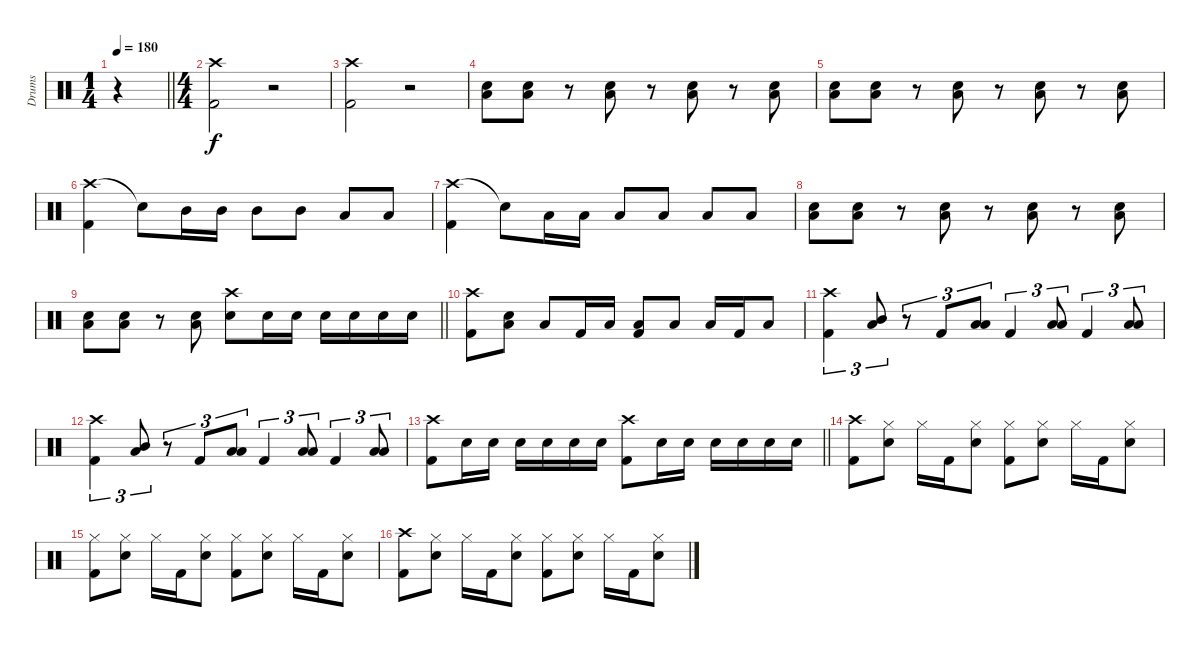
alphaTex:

\track ("Drums" "Drums") {instrument percussion}
\staff {score}
\articulation defaults
\ts (1 4)
\tempo 180
\clef neutral
\barLineRight lightlight
\ks c
r.4{dy f} |
\ts (4 4)
("Crash high (hit)" "Kick (hit) 2").2 r.2 |
("Crash high (hit)" "Kick (hit) 2").2 r.2 |
("Snare (hit) 2" "Low Floor Tom (hit)").8 ("Snare (hit) 2" "Low Floor Tom (hit)").8 r.8 ("Snare (hit) 2" "Low Floor Tom (hit)").8 r.8 ("Snare (hit) 2" "Low Floor Tom (hit)").8 r.8 ("Snare (hit) 2" "Low Floor Tom (hit)").8 |
("Snare (hit) 2" "Low Floor Tom (hit)").8 ("Snare (hit) 2" "Low Floor Tom (hit)").8 r.8 ("Snare (hit) 2" "Low Floor Tom (hit)").8 r.8 ("Snare (hit) 2" "Low Floor Tom (hit)").8 r.8 ("Snare (hit) 2" "Low Floor Tom (hit)").8 |
("Crash high (hit)" "Kick (hit) 2").4 "Snare (hit)"{t}.8 "Mid Tom (hit)".16 "Mid Tom (hit)".16 "Mid Tom (hit)".8 "Mid Tom (hit)".8 "Low Tom (hit)".8 "Low Tom (hit)".8 |
("Crash high (hit)" "Kick (hit) 2").4 "Snare (hit)"{t}.8 "Low Tom (hit)".16 "Low Tom (hit)".16 "Low Tom (hit)".8 "Low Tom (hit)".8 "Low Tom (hit)".8 "Low Tom (hit)".8 |
("Snare (hit) 2" "Low Floor Tom (hit)").8 ("Snare (hit) 2" "Low Floor Tom (hit)").8 r.8 ("Snare (hit) 2" "Low Floor Tom (hit)").8 r.8 ("Snare (hit) 2" "Low Floor Tom (hit)").8 r.8 ("Snare (hit) 2" "Low Floor Tom (hit)").8 |
\barLineRight lightlight
("Snare (hit) 2" "Low Floor Tom (hit)").8 ("Snare (hit) 2" "Low Floor Tom (hit)").8 r.8 ("Snare (hit) 2" "Low Floor Tom (hit)").8 ("Crash high (hit)" "Snare (hit) 2").8 "Snare (hit) 2".16 "Snare (hit) 2".16 "Snare (hit) 2".16 "Snare (hit) 2".16 "Snare (hit) 2".16 "Snare (hit) 2".16 |
("Crash high (hit)" "Kick (hit) 2").8 ("Snare (hit) 2" "Low Floor Tom (hit)").8 "Low Floor Tom (hit)".8 "Kick (hit) 2".16 "Low Floor Tom (hit)".16 ("Low Floor Tom (hit)" "Kick (hit) 2").8 "Low Floor Tom (hit)".8 "Low Floor Tom (hit)".16 "Kick (hit) 2".16 "Low Tom (hit)".8 |
("Crash high (hit)" "Kick (hit) 2").4{tu (3 2)} ("Mid Tom (hit)" "Low Floor Tom (hit)").8{tu (3 2)} r.8{tu (3 2)} "Kick (hit) 2".8{tu (3 2)} ("Low Tom (hit)" "Low Floor Tom (hit)").8{tu (3 2)} "Kick (hit) 2".4{tu (3 2)} ("Low Floor Tom (hit)" "Low Floor Tom (hit)").8{tu (3 2)} "Kick (hit) 2".4{tu (3 2)} ("Low Floor Tom (hit)" "Low Floor Tom (hit)").8{tu (3 2)} |
("Crash high (hit)" "Kick (hit) 2").4{tu (3 2)} ("Mid Tom (hit)" "Low Floor Tom (hit)").8{tu (3 2)} r.8{tu (3 2)} "Kick (hit) 2".8{tu (3 2)} ("Low Tom (hit)" "Low Floor Tom (hit)").8{tu (3 2)} "Kick (hit) 2".4{tu (3 2)} ("Low Floor Tom (hit)" "Low Floor Tom (hit)").8{tu (3 2)} "Kick (hit) 2".4{tu (3 2)} ("Low Floor Tom (hit)" "Low Floor Tom (hit)").8{tu (3 2)} |
\barLineRight lightlight
("Crash high (hit)" "Kick (hit) 2").8 "Snare (hit) 2".16 "Snare (hit) 2".16 "Snare (hit) 2".16 "Snare (hit) 2".16 "Snare (hit) 2".16 "Snare (hit) 2".16 ("Crash high (hit)" "Kick (hit) 2").8 "Snare (hit) 2".16 "Snare (hit) 2".16 "Snare (hit) 2".16 "Snare (hit) 2".16 "Snare (hit) 2".16 "Snare (hit) 2".16 |
("Crash high (hit)" "Kick (hit) 2").8 ("Hi-Hat (closed)" "Snare (hit) 2").8 "Hi-Hat (closed)".16 "Kick (hit) 2".16 ("Hi-Hat (closed)" "Snare (hit) 2").8 ("Hi-Hat (closed)" "Kick (hit) 2").8 ("Hi-Hat (closed)" "Snare (hit) 2").8 "Hi-Hat (closed)".16 "Kick (hit) 2".16 ("Hi-Hat (closed)" "Snare (hit) 2").8 |
("Hi-Hat (closed)" "Kick (hit) 2").8 ("Hi-Hat (closed)" "Snare (hit) 2").8 "Hi-Hat (closed)".16 "Kick (hit) 2".16 ("Hi-Hat (closed)" "Snare (hit) 2").8 ("Hi-Hat (closed)" "Kick (hit) 2").8 ("Hi-Hat (closed)" "Snare (hit) 2").8 "Hi-Hat (closed)".16 "Kick (hit) 2".16 ("Hi-Hat (closed)" "Snare (hit) 2").8 |
("Crash high (hit)" "Kick (hit) 2").8 ("Hi-Hat (closed)" "Snare (hit) 2").8 "Hi-Hat (closed)".16 "Kick (hit) 2".16 ("Hi-Hat (closed)" "Snare (hit) 2").8 ("Hi-Hat (closed)" "Kick (hit) 2").8 ("Hi-Hat (closed)" "Snare (hit) 2").8 "Hi-Hat (closed)".16 "Kick (hit) 2".16 ("Hi-Hat (closed)" "Snare (hit) 2").8
